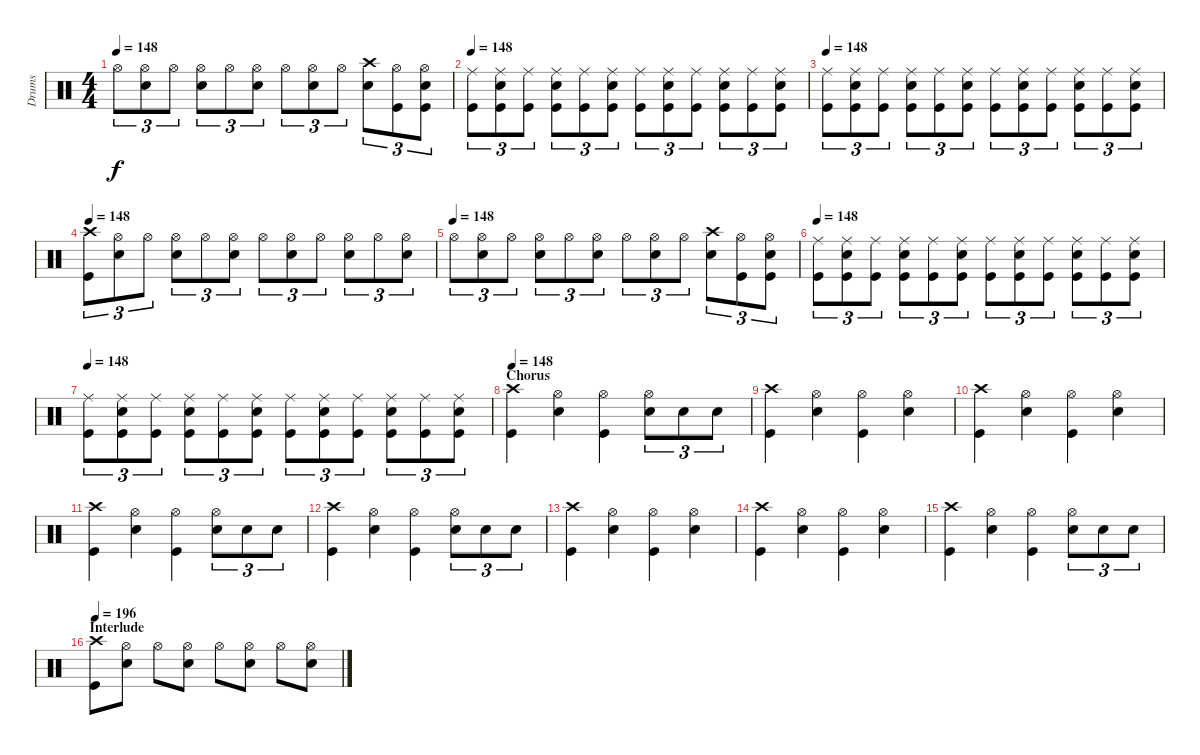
\track ("Drums" "Drums") {instrument percussion}
\staff {score}
\articulation defaults
\ts (4 4)
\tempo 148
\clef neutral
\ks c "Hi-Hat (open)".8{tu (3 2) dy f}
("Hi-Hat (open)" "Electric Snare (hit)").8{tu (3 2)} "Hi-Hat (open)".8{tu (3 2)} ("Hi-Hat (open)" "Electric Snare (hit)").8{tu (3 2)} "Hi-Hat (open)".8{tu (3 2)} ("Hi-Hat (open)" "Electric Snare (hit)").8{tu (3 2)} "Hi-Hat (open)".8{tu (3 2)} ("Hi-Hat (open)" "Electric Snare (hit)").8{tu (3 2)} "Hi-Hat (open)".8{tu (3 2)} ("Crash high (hit)" "Electric Snare (hit)").8{tu (3 2)} ("Hi-Hat (open)" "Kick (hit)").8{tu (3 2)} ("Hi-Hat (open)" "Electric Snare (hit)" "Kick (hit)").8{tu (3 2)} |
\tempo 148
("Ride (middle)" "Kick (hit)").8{tu (3 2)} ("Ride (middle)" "Electric Snare (hit)" "Kick (hit)").8{tu (3 2)} ("Ride (middle)" "Kick (hit)").8{tu (3 2)} ("Ride (middle)" "Electric Snare (hit)" "Kick (hit)").8{tu (3 2)} ("Ride (middle)" "Kick (hit)").8{tu (3 2)} ("Ride (middle)" "Electric Snare (hit)" "Kick (hit)").8{tu (3 2)} ("Ride (middle)" "Kick (hit)").8{tu (3 2)} ("Ride (middle)" "Electric Snare (hit)" "Kick (hit)").8{tu (3 2)} ("Ride (middle)" "Kick (hit)").8{tu (3 2)} ("Ride (middle)" "Electric Snare (hit)" "Kick (hit)").8{tu (3 2)} ("Ride (middle)" "Kick (hit)").8{tu (3 2)} ("Ride (middle)" "Electric Snare (hit)" "Kick (hit)").8{tu (3 2)} |
\tempo 148
("Ride (middle)" "Kick (hit)").8{tu (3 2)} ("Ride (middle)" "Electric Snare (hit)" "Kick (hit)").8{tu (3 2)} ("Ride (middle)" "Kick (hit)").8{tu (3 2)} ("Ride (middle)" "Electric Snare (hit)" "Kick (hit)").8{tu (3 2)} ("Ride (middle)" "Kick (hit)").8{tu (3 2)} ("Ride (middle)" "Electric Snare (hit)" "Kick (hit)").8{tu (3 2)} ("Ride (middle)" "Kick (hit)").8{tu (3 2)} ("Ride (middle)" "Electric Snare (hit)" "Kick (hit)").8{tu (3 2)} ("Ride (middle)" "Kick (hit)").8{tu (3 2)} ("Ride (middle)" "Electric Snare (hit)" "Kick (hit)").8{tu (3 2)} ("Ride (middle)" "Kick (hit)").8{tu (3 2)} ("Ride (middle)" "Electric Snare (hit)" "Kick (hit)").8{tu (3 2)} |
\tempo 148
("Crash high (hit)" "Kick (hit)").8{tu (3 2)} ("Hi-Hat (open)" "Electric Snare (hit)").8{tu (3 2)} "Hi-Hat (open)".8{tu (3 2)} ("Hi-Hat (open)" "Electric Snare (hit)").8{tu (3 2)} "Hi-Hat (open)".8{tu (3 2)} ("Hi-Hat (open)" "Electric Snare (hit)").8{tu (3 2)} "Hi-Hat (open)".8{tu (3 2)} ("Hi-Hat (open)" "Electric Snare (hit)").8{tu (3 2)} "Hi-Hat (open)".8{tu (3 2)} ("Hi-Hat (open)" "Electric Snare (hit)").8{tu (3 2)} "Hi-Hat (open)".8{tu (3 2)} ("Hi-Hat (open)" "Electric Snare (hit)").8{tu (3 2)} |
\tempo (148)
"Hi-Hat (open)".8{tu (3 2)} ("Hi-Hat (open)" "Electric Snare (hit)").8{tu (3 2)} "Hi-Hat (open)".8{tu (3 2)} ("Hi-Hat (open)" "Electric Snare (hit)").8{tu (3 2)} "Hi-Hat (open)".8{tu (3 2)} ("Hi-Hat (open)" "Electric Snare (hit)").8{tu (3 2)} "Hi-Hat (open)".8{tu (3 2)} ("Hi-Hat (open)" "Electric Snare (hit)").8{tu (3 2)} "Hi-Hat (open)".8{tu (3 2)} ("Crash high (hit)" "Electric Snare (hit)").8{tu (3 2)} ("Hi-Hat (open)" "Kick (hit)").8{tu (3 2)} ("Hi-Hat (open)" "Electric Snare (hit)" "Kick (hit)").8{tu (3 2)} |
\tempo 148
("Ride (middle)" "Kick (hit)").8{tu (3 2)} ("Ride (middle)" "Electric Snare (hit)" "Kick (hit)").8{tu (3 2)} ("Ride (middle)" "Kick (hit)").8{tu (3 2)} ("Ride (middle)" "Electric Snare (hit)" "Kick (hit)").8{tu (3 2)} ("Ride (middle)" "Kick (hit)").8{tu (3 2)} ("Ride (middle)" "Electric Snare (hit)" "Kick (hit)").8{tu (3 2)} ("Ride (middle)" "Kick (hit)").8{tu (3 2)} ("Ride (middle)" "Electric Snare (hit)" "Kick (hit)").8{tu (3 2)} ("Ride (middle)" "Kick (hit)").8{tu (3 2)} ("Ride (middle)" "Electric Snare (hit)" "Kick (hit)").8{tu (3 2)} ("Ride (middle)" "Kick (hit)").8{tu (3 2)} ("Ride (middle)" "Electric Snare (hit)" "Kick (hit)").8{tu (3 2)} |
\tempo 148
("Ride (middle)" "Kick (hit)").8{tu (3 2)} ("Ride (middle)" "Electric Snare (hit)" "Kick (hit)").8{tu (3 2)} ("Ride (middle)" "Kick (hit)").8{tu (3 2)} ("Ride (middle)" "Electric Snare (hit)" "Kick (hit)").8{tu (3 2)} ("Ride (middle)" "Kick (hit)").8{tu (3 2)} ("Ride (middle)" "Electric Snare (hit)" "Kick (hit)").8{tu (3 2)} ("Ride (middle)" "Kick (hit)").8{tu (3 2)} ("Ride (middle)" "Electric Snare (hit)" "Kick (hit)").8{tu (3 2)} ("Ride (middle)" "Kick (hit)").8{tu (3 2)} ("Ride (middle)" "Electric Snare (hit)" "Kick (hit)").8{tu (3 2)} ("Ride (middle)" "Kick (hit)").8{tu (3 2)} ("Ride (middle)" "Electric Snare (hit)" "Kick (hit)").8{tu (3 2)} |
\section ("" "Chorus")
\tempo 148
("Crash high (hit)" "Kick (hit)").4 ("Hi-Hat (open)" "Electric Snare (hit)").4 ("Hi-Hat (open)" "Kick (hit)").4 ("Hi-Hat (open)" "Electric Snare (hit)").8{tu (3 2)} "Electric Snare (hit)".8{tu (3 2)} "Electric Snare (hit)".8{tu (3 2)} |
("Crash high (hit)" "Kick (hit)").4 ("Hi-Hat (open)" "Electric Snare (hit)").4 ("Hi-Hat (open)" "Kick (hit)").4 ("Hi-Hat (open)" "Electric Snare (hit)").4 |
("Crash high (hit)" "Kick (hit)").4 ("Hi-Hat (open)" "Electric Snare (hit)").4 ("Hi-Hat (open)" "Kick (hit)").4 ("Hi-Hat (open)" "Electric Snare (hit)").4 |
("Crash high (hit)" "Kick (hit)").4 ("Hi-Hat (open)" "Electric Snare (hit)").4 ("Hi-Hat (open)" "Kick (hit)").4 ("Hi-Hat (open)" "Electric Snare (hit)").8{tu (3 2)} "Electric Snare (hit)".8{tu (3 2)} "Electric Snare (hit)".8{tu (3 2)} |
("Crash high (hit)" "Kick (hit)").4 ("Hi-Hat (open)" "Electric Snare (hit)").4 ("Hi-Hat (open)" "Kick (hit)").4 ("Hi-Hat (open)" "Electric Snare (hit)").8{tu (3 2)} "Electric Snare (hit)".8{tu (3 2)} "Electric Snare (hit)".8{tu (3 2)} |
("Crash high (hit)" "Kick (hit)").4 ("Hi-Hat (open)" "Electric Snare (hit)").4 ("Hi-Hat (open)" "Kick (hit)").4 ("Hi-Hat (open)" "Electric Snare (hit)").4 |
("Crash high (hit)" "Kick (hit)").4 ("Hi-Hat (open)" "Electric Snare (hit)").4 ("Hi-Hat (open)" "Kick (hit)").4 ("Hi-Hat (open)" "Electric Snare (hit)").4 |
("Crash high (hit)" "Kick (hit)").4 ("Hi-Hat (open)" "Electric Snare (hit)").4 ("Hi-Hat (open)" "Kick (hit)").4 ("Hi-Hat (open)" "Electric Snare (hit)").8{tu (3 2)} "Electric Snare (hit)".8{tu (3 2)} "Electric Snare (hit)".8{tu (3 2)} |
\section ("" "Interlude")
\tempo 196
("Crash high (hit)" "Kick (hit)").8 ("Hi-Hat (open)" "Electric Snare (hit)").8 "Hi-Hat (open)".8 ("Hi-Hat (open)" "Electric Snare (hit)").8 "Hi-Hat (open)".8 ("Hi-Hat (open)" "Electric Snare (hit)").8 "Hi-Hat (open)".8 ("Hi-Hat (open)" "Electric Snare (hit)").8
